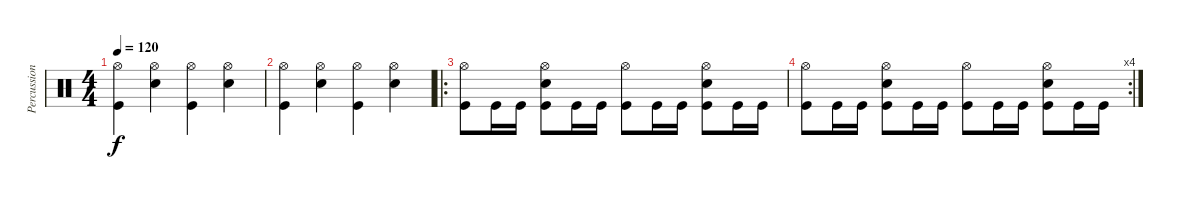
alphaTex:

\track ("Percussion" "Percussion") {instrument percussion}
\staff {score}
\articulation defaults
\ts (4 4)
\tempo 120
\clef neutral
\ks c
("Hi-Hat (open)" "Kick (hit)").4{dy f} ("Hi-Hat (open)" "Snare (hit) 2").4 ("Hi-Hat (open)" "Kick (hit)").4 ("Hi-Hat (open)" "Snare (hit) 2").4 |
("Hi-Hat (open)" "Kick (hit)").4 ("Hi-Hat (open)" "Snare (hit) 2").4 ("Hi-Hat (open)" "Kick (hit)").4 ("Hi-Hat (open)" "Snare (hit) 2").4 |
\ro
("Hi-Hat (open)" "Kick (hit)").8 "Kick (hit)".16 "Kick (hit)".16 ("Hi-Hat (open)" "Snare (hit) 2" "Kick (hit)").8 "Kick (hit)".16 "Kick (hit)".16 ("Hi-Hat (open)" "Kick (hit)").8 "Kick (hit)".16 "Kick (hit)".16 ("Hi-Hat (open)" "Snare (hit) 2" "Kick (hit)").8 "Kick (hit)".16 "Kick (hit)".16 |
\rc 4
("Hi-Hat (open)" "Kick (hit)").8 "Kick (hit)".16 "Kick (hit)".16 ("Hi-Hat (open)" "Snare (hit) 2" "Kick (hit)").8 "Kick (hit)".16 "Kick (hit)".16 ("Hi-Hat (open)" "Kick (hit)").8 "Kick (hit)".16 "Kick (hit)".16 ("Hi-Hat (open)" "Snare (hit) 2" "Kick (hit)").8 "Kick (hit)".16 "Kick (hit)".16
